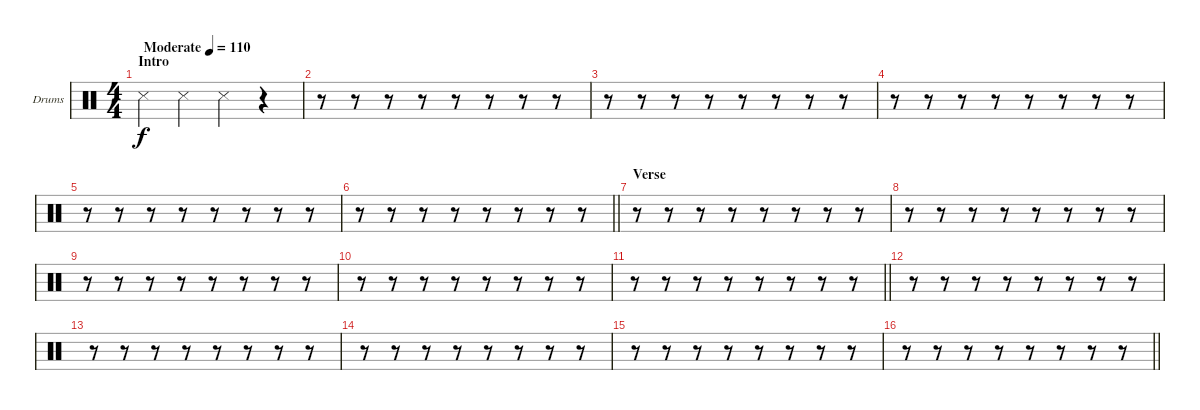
\bracketExtendMode groupsimilarinstruments
\firstSystemTrackNameOrientation horizontal
\otherSystemsTrackNameOrientation horizontal
\track ("Drumkit" "Drums") {instrument percussion}
\staff {score}
\articulation defaults
\ts (4 4)
\beaming (8 2 2 2 2)
\section ("" "Intro")
\tempo (110 "Moderate")
\clef neutral
\ks c "Snare (side stick) 3".4{dy f} "Snare (side stick) 3".4 "Snare (side stick) 3".4
r.4 |
r.8 r.8 r.8 r.8 r.8 r.8 r.8 r.8 |
r.8 r.8 r.8 r.8 r.8 r.8 r.8 r.8 |
r.8 r.8 r.8 r.8 r.8 r.8 r.8 r.8 |
r.8 r.8 r.8 r.8 r.8 r.8 r.8 r.8 |
\barLineRight lightlight
r.8 r.8 r.8 r.8 r.8 r.8 r.8 r.8 |
\section ("" "Verse")
r.8 r.8 r.8 r.8 r.8 r.8 r.8 r.8 |
r.8 r.8 r.8 r.8 r.8 r.8 r.8 r.8 |
r.8 r.8 r.8 r.8 r.8 r.8 r.8 r.8 |
r.8 r.8 r.8 r.8 r.8 r.8 r.8 r.8 |
\barLineRight lightlight
r.8 r.8 r.8 r.8 r.8 r.8 r.8 r.8 |
r.8 r.8 r.8 r.8 r.8 r.8 r.8 r.8 |
r.8 r.8 r.8 r.8 r.8 r.8 r.8 r.8 |
r.8 r.8 r.8 r.8 r.8 r.8 r.8 r.8 |
r.8 r.8 r.8 r.8 r.8 r.8 r.8 r.8 |
\barLineRight lightlight
r.8 r.8 r.8 r.8 r.8 r.8 r.8 r.8
